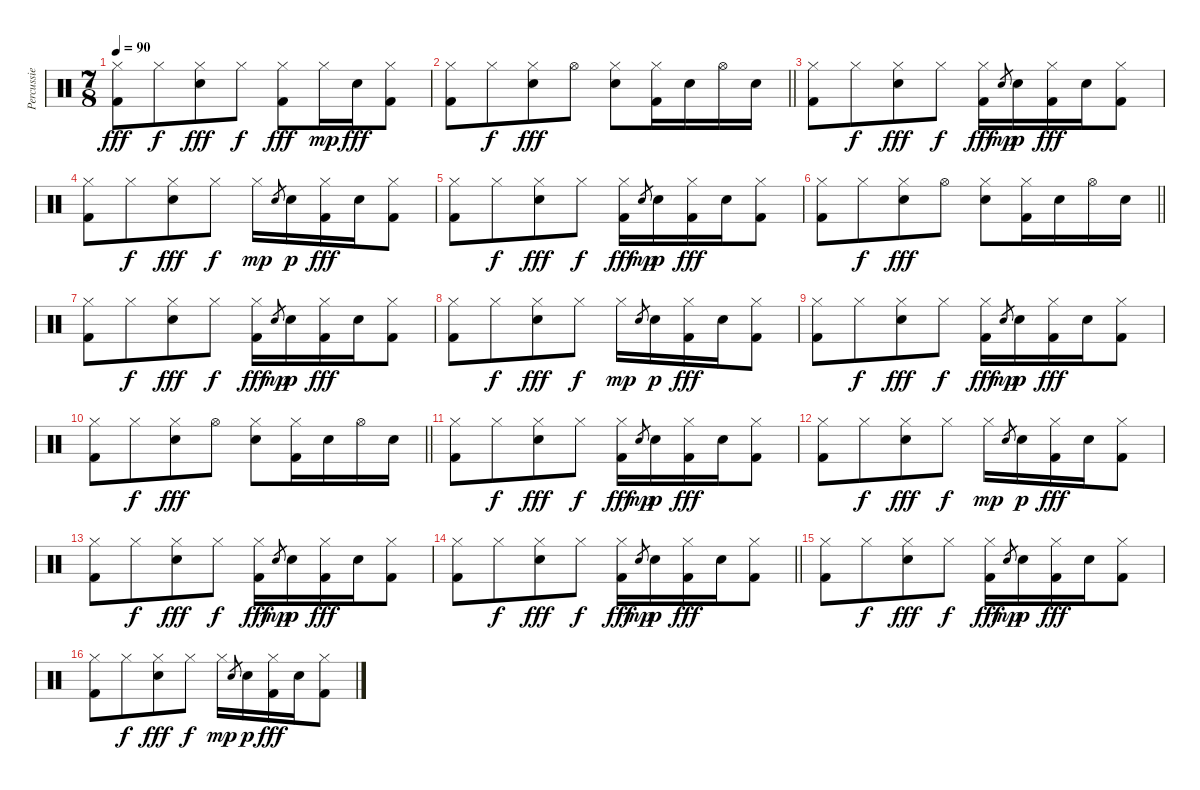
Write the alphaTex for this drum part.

\track ("Percussie" "Percussie") {instrument percussion}
\staff {score}
\articulation defaults
\ts (7 8)
\tempo 90
\clef neutral
\ks c
("Hi-Hat (closed)" "Kick (hit) 2").8{dy fff} "Hi-Hat (closed)".8{dy f} ("Hi-Hat (closed)" "Snare (hit) 2").8{dy fff} "Hi-Hat (closed)".8{dy f} ("Hi-Hat (closed)" "Kick (hit) 2").8{dy fff} "Hi-Hat (closed)".16{dy mp} "Snare (hit) 2".16{dy fff} ("Hi-Hat (closed)" "Kick (hit) 2").8 |
\barLineRight lightlight
("Hi-Hat (closed)" "Kick (hit) 2").8 "Hi-Hat (closed)".8{dy f} ("Hi-Hat (closed)" "Snare (hit) 2").8{dy fff} "Hi-Hat (open)".8 ("Hi-Hat (closed)" "Snare (hit) 2").8 ("Hi-Hat (closed)" "Kick (hit) 2").16 "Snare (hit) 2".16 "Hi-Hat (open)".16 "Snare (hit) 2".16 |
("Hi-Hat (closed)" "Kick (hit) 2").8 "Hi-Hat (closed)".8{dy f} ("Hi-Hat (closed)" "Snare (hit) 2").8{dy fff} "Hi-Hat (closed)".8{dy f} ("Hi-Hat (closed)" "Kick (hit) 2").16{dy fff} "Snare (hit) 2".8{gr dy mp} "Snare (hit) 2".16{dy p} ("Hi-Hat (closed)" "Kick (hit) 2").16{dy fff} "Snare (hit) 2".16 ("Hi-Hat (closed)" "Kick (hit) 2").8 |
("Hi-Hat (closed)" "Kick (hit) 2").8 "Hi-Hat (closed)".8{dy f} ("Hi-Hat (closed)" "Snare (hit) 2").8{dy fff} "Hi-Hat (closed)".8{dy f} "Hi-Hat (closed)".16{dy mp} "Snare (hit) 2".8{gr} "Snare (hit) 2".16{dy p} ("Hi-Hat (closed)" "Kick (hit) 2").16{dy fff} "Snare (hit) 2".16 ("Hi-Hat (closed)" "Kick (hit) 2").8 |
("Hi-Hat (closed)" "Kick (hit) 2").8 "Hi-Hat (closed)".8{dy f} ("Hi-Hat (closed)" "Snare (hit) 2").8{dy fff} "Hi-Hat (closed)".8{dy f} ("Hi-Hat (closed)" "Kick (hit) 2").16{dy fff} "Snare (hit) 2".8{gr dy mp} "Snare (hit) 2".16{dy p} ("Hi-Hat (closed)" "Kick (hit) 2").16{dy fff} "Snare (hit) 2".16 ("Hi-Hat (closed)" "Kick (hit) 2").8 |
\barLineRight lightlight
("Hi-Hat (closed)" "Kick (hit) 2").8 "Hi-Hat (closed)".8{dy f} ("Hi-Hat (closed)" "Snare (hit) 2").8{dy fff} "Hi-Hat (open)".8 ("Hi-Hat (closed)" "Snare (hit) 2").8 ("Hi-Hat (closed)" "Kick (hit) 2").16 "Snare (hit) 2".16 "Hi-Hat (open)".16 "Snare (hit) 2".16 |
("Hi-Hat (closed)" "Kick (hit) 2").8 "Hi-Hat (closed)".8{dy f} ("Hi-Hat (closed)" "Snare (hit) 2").8{dy fff} "Hi-Hat (closed)".8{dy f} ("Hi-Hat (closed)" "Kick (hit) 2").16{dy fff} "Snare (hit) 2".8{gr dy mp} "Snare (hit) 2".16{dy p} ("Hi-Hat (closed)" "Kick (hit) 2").16{dy fff} "Snare (hit) 2".16 ("Hi-Hat (closed)" "Kick (hit) 2").8 |
("Hi-Hat (closed)" "Kick (hit) 2").8 "Hi-Hat (closed)".8{dy f} ("Hi-Hat (closed)" "Snare (hit) 2").8{dy fff} "Hi-Hat (closed)".8{dy f} "Hi-Hat (closed)".16{dy mp} "Snare (hit) 2".8{gr} "Snare (hit) 2".16{dy p} ("Hi-Hat (closed)" "Kick (hit) 2").16{dy fff} "Snare (hit) 2".16 ("Hi-Hat (closed)" "Kick (hit) 2").8 |
("Hi-Hat (closed)" "Kick (hit) 2").8 "Hi-Hat (closed)".8{dy f} ("Hi-Hat (closed)" "Snare (hit) 2").8{dy fff} "Hi-Hat (closed)".8{dy f} ("Hi-Hat (closed)" "Kick (hit) 2").16{dy fff} "Snare (hit) 2".8{gr dy mp} "Snare (hit) 2".16{dy p} ("Hi-Hat (closed)" "Kick (hit) 2").16{dy fff} "Snare (hit) 2".16 ("Hi-Hat (closed)" "Kick (hit) 2").8 |
\barLineRight lightlight
("Hi-Hat (closed)" "Kick (hit) 2").8 "Hi-Hat (closed)".8{dy f} ("Hi-Hat (closed)" "Snare (hit) 2").8{dy fff} "Hi-Hat (open)".8 ("Hi-Hat (closed)" "Snare (hit) 2").8 ("Hi-Hat (closed)" "Kick (hit) 2").16 "Snare (hit) 2".16 "Hi-Hat (open)".16 "Snare (hit) 2".16 |
("Hi-Hat (closed)" "Kick (hit) 2").8 "Hi-Hat (closed)".8{dy f} ("Hi-Hat (closed)" "Snare (hit) 2").8{dy fff} "Hi-Hat (closed)".8{dy f} ("Hi-Hat (closed)" "Kick (hit) 2").16{dy fff} "Snare (hit) 2".8{gr dy mp} "Snare (hit) 2".16{dy p} ("Hi-Hat (closed)" "Kick (hit) 2").16{dy fff} "Snare (hit) 2".16 ("Hi-Hat (closed)" "Kick (hit) 2").8 |
("Hi-Hat (closed)" "Kick (hit) 2").8 "Hi-Hat (closed)".8{dy f} ("Hi-Hat (closed)" "Snare (hit) 2").8{dy fff} "Hi-Hat (closed)".8{dy f} "Hi-Hat (closed)".16{dy mp} "Snare (hit) 2".8{gr} "Snare (hit) 2".16{dy p} ("Hi-Hat (closed)" "Kick (hit) 2").16{dy fff} "Snare (hit) 2".16 ("Hi-Hat (closed)" "Kick (hit) 2").8 |
("Hi-Hat (closed)" "Kick (hit) 2").8 "Hi-Hat (closed)".8{dy f} ("Hi-Hat (closed)" "Snare (hit) 2").8{dy fff} "Hi-Hat (closed)".8{dy f} ("Hi-Hat (closed)" "Kick (hit) 2").16{dy fff} "Snare (hit) 2".8{gr dy mp} "Snare (hit) 2".16{dy p} ("Hi-Hat (closed)" "Kick (hit) 2").16{dy fff} "Snare (hit) 2".16 ("Hi-Hat (closed)" "Kick (hit) 2").8 |
\barLineRight lightlight
("Hi-Hat (closed)" "Kick (hit) 2").8 "Hi-Hat (closed)".8{dy f} ("Hi-Hat (closed)" "Snare (hit) 2").8{dy fff} "Hi-Hat (closed)".8{dy f} ("Hi-Hat (closed)" "Kick (hit) 2").16{dy fff} "Snare (hit) 2".8{gr dy mp} "Snare (hit) 2".16{dy p} ("Hi-Hat (closed)" "Kick (hit) 2").16{dy fff} "Snare (hit) 2".16 ("Hi-Hat (closed)" "Kick (hit) 2").8 |
("Hi-Hat (closed)" "Kick (hit) 2").8 "Hi-Hat (closed)".8{dy f} ("Hi-Hat (closed)" "Snare (hit) 2").8{dy fff} "Hi-Hat (closed)".8{dy f} ("Hi-Hat (closed)" "Kick (hit) 2").16{dy fff} "Snare (hit) 2".8{gr dy mp} "Snare (hit) 2".16{dy p} ("Hi-Hat (closed)" "Kick (hit) 2").16{dy fff} "Snare (hit) 2".16 ("Hi-Hat (closed)" "Kick (hit) 2").8 |
("Hi-Hat (closed)" "Kick (hit) 2").8 "Hi-Hat (closed)".8{dy f} ("Hi-Hat (closed)" "Snare (hit) 2").8{dy fff} "Hi-Hat (closed)".8{dy f} "Hi-Hat (closed)".16{dy mp} "Snare (hit) 2".8{gr} "Snare (hit) 2".16{dy p} ("Hi-Hat (closed)" "Kick (hit) 2").16{dy fff} "Snare (hit) 2".16 ("Hi-Hat (closed)" "Kick (hit) 2").8
